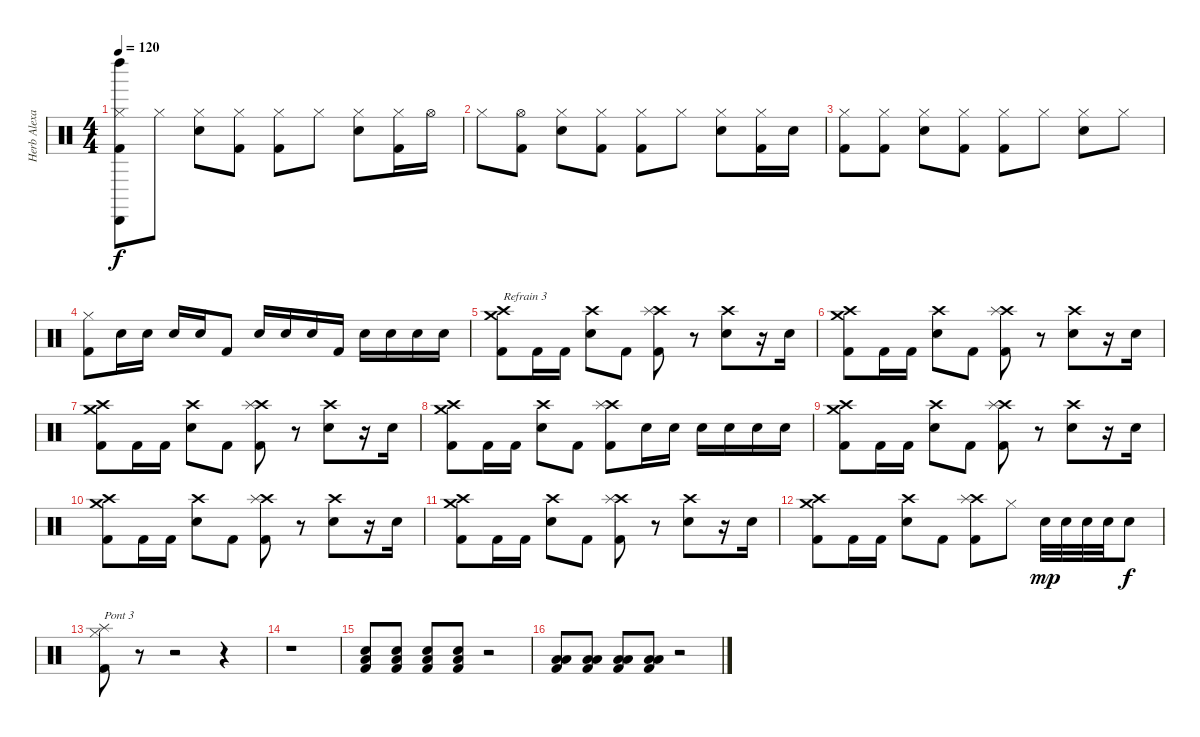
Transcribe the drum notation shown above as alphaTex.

\track ("Herb Alexander" "Herb Alexa") {instrument percussion}
\staff {score}
\articulation defaults
\ts (4 4)
\tempo 120
\clef neutral
\ks c
("Left Maraca (hit)" "Cabasa (hit)" "Hi-Hat (closed)" "Kick (hit) 2").8{dy f} "Hi-Hat (closed)".8 ("Electric Snare (hit)" "Hi-Hat (closed)").8 ("Hi-Hat (closed)" "Kick (hit) 2").8 ("Hi-Hat (closed)" "Kick (hit) 2").8 "Hi-Hat (closed)".8 ("Electric Snare (hit)" "Hi-Hat (closed)").8 ("Hi-Hat (closed)" "Kick (hit) 2").16 "Hi-Hat (open)".16 |
"Hi-Hat (closed)".8 ("Hi-Hat (open)" "Kick (hit) 2").8 ("Electric Snare (hit)" "Hi-Hat (closed)").8 ("Hi-Hat (closed)" "Kick (hit) 2").8 ("Hi-Hat (closed)" "Kick (hit) 2").8 "Hi-Hat (closed)".8 ("Electric Snare (hit)" "Hi-Hat (closed)").8 ("Hi-Hat (closed)" "Kick (hit) 2").16 "Electric Snare (hit)".16 |
("Hi-Hat (closed)" "Kick (hit) 2").8 ("Hi-Hat (closed)" "Kick (hit) 2").8 ("Electric Snare (hit)" "Hi-Hat (closed)").8 ("Hi-Hat (closed)" "Kick (hit) 2").8 ("Hi-Hat (closed)" "Kick (hit) 2").8 "Hi-Hat (closed)".8 ("Electric Snare (hit)" "Hi-Hat (closed)").8 "Hi-Hat (closed)".8 |
("Hi-Hat (closed)" "Kick (hit) 2").8 "Electric Snare (hit)".16 "Electric Snare (hit)".16 "Electric Snare (hit)".16 "Electric Snare (hit)".16 "Kick (hit) 2".8 "Electric Snare (hit)".16 "Electric Snare (hit)".16 "Electric Snare (hit)".16 "Kick (hit) 2".16 "Electric Snare (hit)".16 "Electric Snare (hit)".16 "Electric Snare (hit)".16 "Electric Snare (hit)".16 |
("Crash medium (hit)" "Crash high (hit)" "Kick (hit) 2").8{txt "Refrain 3"} "Kick (hit) 2".16 "Kick (hit) 2".16 ("Crash high (hit)" "Electric Snare (hit)").8 "Kick (hit) 2".8 ("Crash high (hit)" "Splash (hit)" "Kick (hit) 2").8 r.8 ("Crash high (hit)" "Electric Snare (hit)").8 r.16 "Electric Snare (hit)".16 |
("Crash medium (hit)" "Crash high (hit)" "Kick (hit) 2").8 "Kick (hit) 2".16 "Kick (hit) 2".16 ("Crash high (hit)" "Electric Snare (hit)").8 "Kick (hit) 2".8 ("Crash high (hit)" "Splash (hit)" "Kick (hit) 2").8 r.8 ("Crash high (hit)" "Electric Snare (hit)").8 r.16 "Electric Snare (hit)".16 |
("Crash medium (hit)" "Crash high (hit)" "Kick (hit) 2").8 "Kick (hit) 2".16 "Kick (hit) 2".16 ("Crash high (hit)" "Electric Snare (hit)").8 "Kick (hit) 2".8 ("Crash high (hit)" "Splash (hit)" "Kick (hit) 2").8 r.8 ("Crash high (hit)" "Electric Snare (hit)").8 r.16 "Electric Snare (hit)".16 |
("Crash medium (hit)" "Crash high (hit)" "Kick (hit) 2").8 "Kick (hit) 2".16 "Kick (hit) 2".16 ("Crash high (hit)" "Electric Snare (hit)").8 "Kick (hit) 2".8 ("Crash high (hit)" "Splash (hit)" "Kick (hit) 2").8 "Electric Snare (hit)".16 "Electric Snare (hit)".16 "Electric Snare (hit)".16 "Electric Snare (hit)".16 "Electric Snare (hit)".16 "Electric Snare (hit)".16 |
("Crash medium (hit)" "Crash high (hit)" "Kick (hit) 2").8 "Kick (hit) 2".16 "Kick (hit) 2".16 ("Crash high (hit)" "Electric Snare (hit)").8 "Kick (hit) 2".8 ("Crash high (hit)" "Splash (hit)" "Kick (hit) 2").8 r.8 ("Crash high (hit)" "Electric Snare (hit)").8 r.16 "Electric Snare (hit)".16 |
("Crash medium (hit)" "Crash high (hit)" "Kick (hit) 2").8 "Kick (hit) 2".16 "Kick (hit) 2".16 ("Crash high (hit)" "Electric Snare (hit)").8 "Kick (hit) 2".8 ("Crash high (hit)" "Splash (hit)" "Kick (hit) 2").8 r.8 ("Crash high (hit)" "Electric Snare (hit)").8 r.16 "Electric Snare (hit)".16 |
("Crash medium (hit)" "Crash high (hit)" "Kick (hit) 2").8 "Kick (hit) 2".16 "Kick (hit) 2".16 ("Crash high (hit)" "Electric Snare (hit)").8 "Kick (hit) 2".8 ("Crash high (hit)" "Splash (hit)" "Kick (hit) 2").8 r.8 ("Crash high (hit)" "Electric Snare (hit)").8 r.16 "Electric Snare (hit)".16 |
("Crash medium (hit)" "Crash high (hit)" "Kick (hit) 2").8 "Kick (hit) 2".16 "Kick (hit) 2".16 ("Crash high (hit)" "Electric Snare (hit)").8 "Kick (hit) 2".8 ("Crash high (hit)" "Splash (hit)" "Kick (hit) 2").8 "Hi-Hat (closed)".8 "Electric Snare (hit)".32{dy mp} "Electric Snare (hit)".32 "Electric Snare (hit)".32 "Electric Snare (hit)".32 "Electric Snare (hit)".8{dy f} |
("Splash (hit)" "Hi-Hat (closed)" "Kick (hit) 2").8{txt "Pont 3"} r.8 r.2 r.4 |
r.1 |
("Low Floor Tom (hit)" "Electric Snare (hit)" "Kick (hit) 2").8 ("Low Floor Tom (hit)" "Electric Snare (hit)" "Kick (hit) 2").8 ("Low Floor Tom (hit)" "Electric Snare (hit)" "Kick (hit) 2").8 ("Low Floor Tom (hit)" "Electric Snare (hit)" "Kick (hit) 2").8 r.2 |
("Low Tom (hit)" "Low Floor Tom (hit)" "Kick (hit) 2").8 ("Low Tom (hit)" "Low Floor Tom (hit)" "Kick (hit) 2").8 ("Low Tom (hit)" "Low Floor Tom (hit)" "Kick (hit) 2").8 ("Low Tom (hit)" "Low Floor Tom (hit)" "Kick (hit) 2").8 r.2
